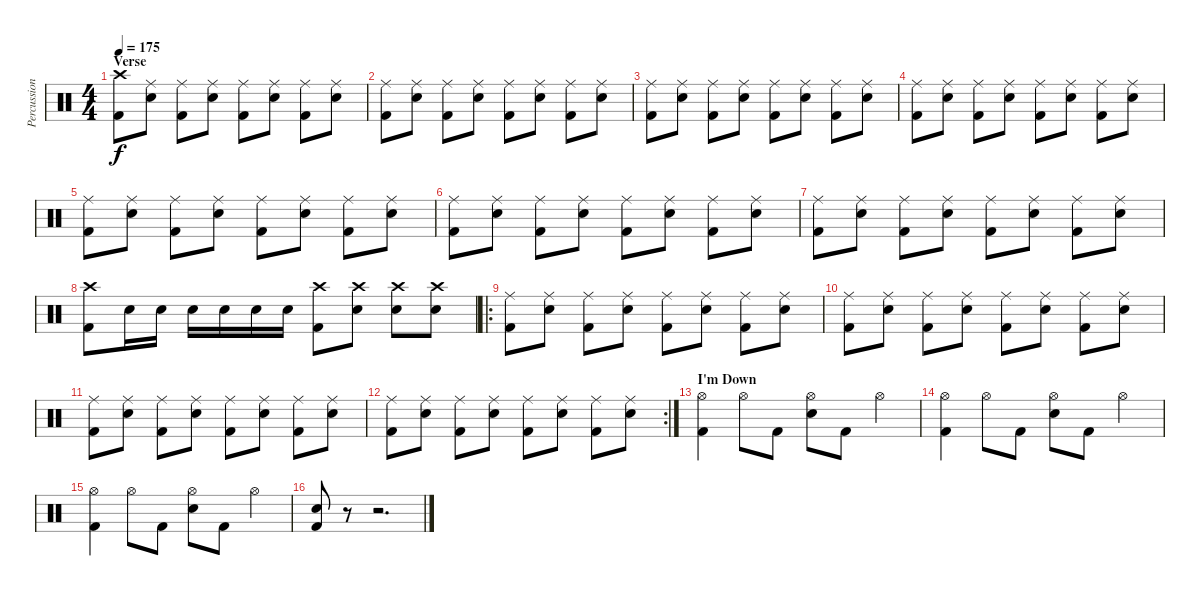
\track ("Percussion" "Percussion") {instrument percussion}
\staff {score}
\articulation defaults
\ts (4 4)
\section ("" "Verse")
\tempo 175
\clef neutral
\ks c
("Crash high (hit)" "Kick (hit) 2").8{dy f} ("Ride (middle)" "Snare (hit) 2").8 ("Ride (middle)" "Kick (hit) 2").8 ("Ride (middle)" "Snare (hit) 2").8 ("Ride (middle)" "Kick (hit) 2").8 ("Ride (middle)" "Snare (hit) 2").8 ("Ride (middle)" "Kick (hit) 2").8 ("Ride (middle)" "Snare (hit) 2").8 |
("Ride (middle)" "Kick (hit) 2").8 ("Ride (middle)" "Snare (hit) 2").8 ("Ride (middle)" "Kick (hit) 2").8 ("Ride (middle)" "Snare (hit) 2").8 ("Ride (middle)" "Kick (hit) 2").8 ("Ride (middle)" "Snare (hit) 2").8 ("Ride (middle)" "Kick (hit) 2").8 ("Ride (middle)" "Snare (hit) 2").8 |
("Ride (middle)" "Kick (hit) 2").8 ("Ride (middle)" "Snare (hit) 2").8 ("Ride (middle)" "Kick (hit) 2").8 ("Ride (middle)" "Snare (hit) 2").8 ("Ride (middle)" "Kick (hit) 2").8 ("Ride (middle)" "Snare (hit) 2").8 ("Ride (middle)" "Kick (hit) 2").8 ("Ride (middle)" "Snare (hit) 2").8 |
("Ride (middle)" "Kick (hit) 2").8 ("Ride (middle)" "Snare (hit) 2").8 ("Ride (middle)" "Kick (hit) 2").8 ("Ride (middle)" "Snare (hit) 2").8 ("Ride (middle)" "Kick (hit) 2").8 ("Ride (middle)" "Snare (hit) 2").8 ("Ride (middle)" "Kick (hit) 2").8 ("Ride (middle)" "Snare (hit) 2").8 |
("Ride (middle)" "Kick (hit) 2").8 ("Ride (middle)" "Snare (hit) 2").8 ("Ride (middle)" "Kick (hit) 2").8 ("Ride (middle)" "Snare (hit) 2").8 ("Ride (middle)" "Kick (hit) 2").8 ("Ride (middle)" "Snare (hit) 2").8 ("Ride (middle)" "Kick (hit) 2").8 ("Ride (middle)" "Snare (hit) 2").8 |
("Ride (middle)" "Kick (hit) 2").8 ("Ride (middle)" "Snare (hit) 2").8 ("Ride (middle)" "Kick (hit) 2").8 ("Ride (middle)" "Snare (hit) 2").8 ("Ride (middle)" "Kick (hit) 2").8 ("Ride (middle)" "Snare (hit) 2").8 ("Ride (middle)" "Kick (hit) 2").8 ("Ride (middle)" "Snare (hit) 2").8 |
("Ride (middle)" "Kick (hit) 2").8 ("Ride (middle)" "Snare (hit) 2").8 ("Ride (middle)" "Kick (hit) 2").8 ("Ride (middle)" "Snare (hit) 2").8 ("Ride (middle)" "Kick (hit) 2").8 ("Ride (middle)" "Snare (hit) 2").8 ("Ride (middle)" "Kick (hit) 2").8 ("Ride (middle)" "Snare (hit) 2").8 |
("Crash high (hit)" "Kick (hit) 2").8 "Snare (hit) 2".16 "Snare (hit) 2".16 "Snare (hit) 2".16 "Snare (hit) 2".16 "Snare (hit) 2".16 "Snare (hit) 2".16 ("Crash high (hit)" "Kick (hit) 2").8 ("Crash high (hit)" "Snare (hit) 2").8 ("Crash high (hit)" "Snare (hit) 2").8 ("Crash high (hit)" "Snare (hit) 2").8 |
\ro
\section ("" "")
("Ride (middle)" "Kick (hit) 2").8 ("Ride (middle)" "Snare (hit) 2").8 ("Ride (middle)" "Kick (hit) 2").8 ("Ride (middle)" "Snare (hit) 2").8 ("Ride (middle)" "Kick (hit) 2").8 ("Ride (middle)" "Snare (hit) 2").8 ("Ride (middle)" "Kick (hit) 2").8 ("Ride (middle)" "Snare (hit) 2").8 |
("Ride (middle)" "Kick (hit) 2").8 ("Ride (middle)" "Snare (hit) 2").8 ("Ride (middle)" "Kick (hit) 2").8 ("Ride (middle)" "Snare (hit) 2").8 ("Ride (middle)" "Kick (hit) 2").8 ("Ride (middle)" "Snare (hit) 2").8 ("Ride (middle)" "Kick (hit) 2").8 ("Ride (middle)" "Snare (hit) 2").8 |
("Ride (middle)" "Kick (hit) 2").8 ("Ride (middle)" "Snare (hit) 2").8 ("Ride (middle)" "Kick (hit) 2").8 ("Ride (middle)" "Snare (hit) 2").8 ("Ride (middle)" "Kick (hit) 2").8 ("Ride (middle)" "Snare (hit) 2").8 ("Ride (middle)" "Kick (hit) 2").8 ("Ride (middle)" "Snare (hit) 2").8 |
\rc 2
("Ride (middle)" "Kick (hit) 2").8 ("Ride (middle)" "Snare (hit) 2").8 ("Ride (middle)" "Kick (hit) 2").8 ("Ride (middle)" "Snare (hit) 2").8 ("Ride (middle)" "Kick (hit) 2").8 ("Ride (middle)" "Snare (hit) 2").8 ("Ride (middle)" "Kick (hit) 2").8 ("Ride (middle)" "Snare (hit) 2").8 |
\section ("" "I'm Down")
("Hi-Hat (open)" "Kick (hit) 2").4 "Hi-Hat (open)".8 "Kick (hit) 2".8 ("Hi-Hat (open)" "Snare (hit) 2").8 "Kick (hit) 2".8 "Hi-Hat (open)".4 |
("Hi-Hat (open)" "Kick (hit) 2").4 "Hi-Hat (open)".8 "Kick (hit) 2".8 ("Hi-Hat (open)" "Snare (hit) 2").8 "Kick (hit) 2".8 "Hi-Hat (open)".4 |
("Hi-Hat (open)" "Kick (hit) 2").4 "Hi-Hat (open)".8 "Kick (hit) 2".8 ("Hi-Hat (open)" "Snare (hit) 2").8 "Kick (hit) 2".8 "Hi-Hat (open)".4 |
("Snare (hit) 2" "Kick (hit) 2").8 r.8 r.2{d}
